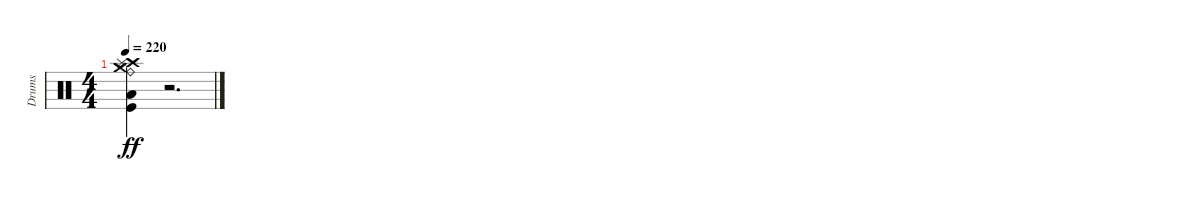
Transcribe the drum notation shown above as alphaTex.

\track ("Drums" "Drums") {instrument percussion}
\staff {score}
\articulation defaults
\ts (4 4)
\tempo 220
\clef neutral
\ks c
("Kick (hit)" "Low Floor Tom (hit)" "Ride (bell)" "Crash high (hit)" "Splash (hit)" "Crash medium (hit)").4{dy ff} r.2{d volume 0}
